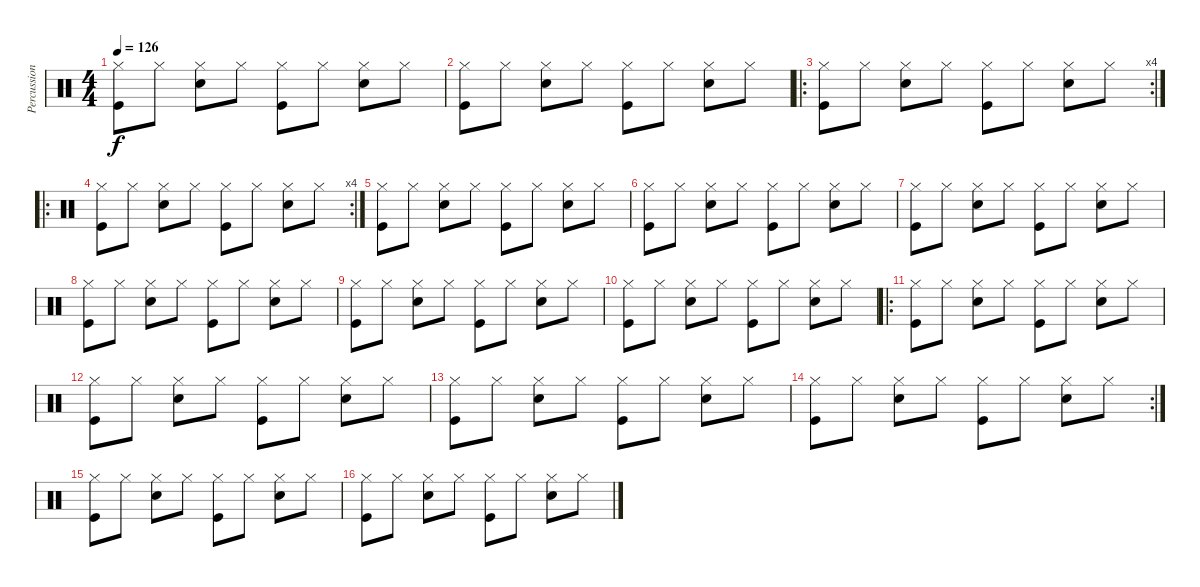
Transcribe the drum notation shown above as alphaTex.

\track ("Percussions" "Percussion") {instrument percussion}
\staff {score}
\articulation defaults
\ts (4 4)
\tempo 126
\clef neutral
\ks c
("Hi-Hat (closed)" "Kick (hit)").8{dy f} "Hi-Hat (closed)".8 ("Hi-Hat (closed)" "Snare (hit) 2").8 "Hi-Hat (closed)".8 ("Hi-Hat (closed)" "Kick (hit)").8 "Hi-Hat (closed)".8 ("Hi-Hat (closed)" "Snare (hit) 2").8 "Hi-Hat (closed)".8 |
("Hi-Hat (closed)" "Kick (hit)").8 "Hi-Hat (closed)".8 ("Hi-Hat (closed)" "Snare (hit) 2").8 "Hi-Hat (closed)".8 ("Hi-Hat (closed)" "Kick (hit)").8 "Hi-Hat (closed)".8 ("Hi-Hat (closed)" "Snare (hit) 2").8 "Hi-Hat (closed)".8 |
\ro
\rc 4
("Hi-Hat (closed)" "Kick (hit)").8 "Hi-Hat (closed)".8 ("Hi-Hat (closed)" "Snare (hit) 2").8 "Hi-Hat (closed)".8 ("Hi-Hat (closed)" "Kick (hit)").8 "Hi-Hat (closed)".8 ("Hi-Hat (closed)" "Snare (hit) 2").8 "Hi-Hat (closed)".8 |
\ro
\rc 4
("Hi-Hat (closed)" "Kick (hit)").8 "Hi-Hat (closed)".8 ("Hi-Hat (closed)" "Snare (hit) 2").8 "Hi-Hat (closed)".8 ("Hi-Hat (closed)" "Kick (hit)").8 "Hi-Hat (closed)".8 ("Hi-Hat (closed)" "Snare (hit) 2").8 "Hi-Hat (closed)".8 |
("Hi-Hat (closed)" "Kick (hit)").8 "Hi-Hat (closed)".8 ("Hi-Hat (closed)" "Snare (hit) 2").8 "Hi-Hat (closed)".8 ("Hi-Hat (closed)" "Kick (hit)").8 "Hi-Hat (closed)".8 ("Hi-Hat (closed)" "Snare (hit) 2").8 "Hi-Hat (closed)".8 |
("Hi-Hat (closed)" "Kick (hit)").8 "Hi-Hat (closed)".8 ("Hi-Hat (closed)" "Snare (hit) 2").8 "Hi-Hat (closed)".8 ("Hi-Hat (closed)" "Kick (hit)").8 "Hi-Hat (closed)".8 ("Hi-Hat (closed)" "Snare (hit) 2").8 "Hi-Hat (closed)".8 |
("Hi-Hat (closed)" "Kick (hit)").8 "Hi-Hat (closed)".8 ("Hi-Hat (closed)" "Snare (hit) 2").8 "Hi-Hat (closed)".8 ("Hi-Hat (closed)" "Kick (hit)").8 "Hi-Hat (closed)".8 ("Hi-Hat (closed)" "Snare (hit) 2").8 "Hi-Hat (closed)".8 |
("Hi-Hat (closed)" "Kick (hit)").8 "Hi-Hat (closed)".8 ("Hi-Hat (closed)" "Snare (hit) 2").8 "Hi-Hat (closed)".8 ("Hi-Hat (closed)" "Kick (hit)").8 "Hi-Hat (closed)".8 ("Hi-Hat (closed)" "Snare (hit) 2").8 "Hi-Hat (closed)".8 |
("Hi-Hat (closed)" "Kick (hit)").8 "Hi-Hat (closed)".8 ("Hi-Hat (closed)" "Snare (hit) 2").8 "Hi-Hat (closed)".8 ("Hi-Hat (closed)" "Kick (hit)").8 "Hi-Hat (closed)".8 ("Hi-Hat (closed)" "Snare (hit) 2").8 "Hi-Hat (closed)".8 |
("Hi-Hat (closed)" "Kick (hit)").8 "Hi-Hat (closed)".8 ("Hi-Hat (closed)" "Snare (hit) 2").8 "Hi-Hat (closed)".8 ("Hi-Hat (closed)" "Kick (hit)").8 "Hi-Hat (closed)".8 ("Hi-Hat (closed)" "Snare (hit) 2").8 "Hi-Hat (closed)".8 |
\ro
("Hi-Hat (closed)" "Kick (hit)").8 "Hi-Hat (closed)".8 ("Hi-Hat (closed)" "Snare (hit) 2").8 "Hi-Hat (closed)".8 ("Hi-Hat (closed)" "Kick (hit)").8 "Hi-Hat (closed)".8 ("Hi-Hat (closed)" "Snare (hit) 2").8 "Hi-Hat (closed)".8 |
("Hi-Hat (closed)" "Kick (hit)").8 "Hi-Hat (closed)".8 ("Hi-Hat (closed)" "Snare (hit) 2").8 "Hi-Hat (closed)".8 ("Hi-Hat (closed)" "Kick (hit)").8 "Hi-Hat (closed)".8 ("Hi-Hat (closed)" "Snare (hit) 2").8 "Hi-Hat (closed)".8 |
("Hi-Hat (closed)" "Kick (hit)").8 "Hi-Hat (closed)".8 ("Hi-Hat (closed)" "Snare (hit) 2").8 "Hi-Hat (closed)".8 ("Hi-Hat (closed)" "Kick (hit)").8 "Hi-Hat (closed)".8 ("Hi-Hat (closed)" "Snare (hit) 2").8 "Hi-Hat (closed)".8 |
\rc 2
("Hi-Hat (closed)" "Kick (hit)").8 "Hi-Hat (closed)".8 ("Hi-Hat (closed)" "Snare (hit) 2").8 "Hi-Hat (closed)".8 ("Hi-Hat (closed)" "Kick (hit)").8 "Hi-Hat (closed)".8 ("Hi-Hat (closed)" "Snare (hit) 2").8 "Hi-Hat (closed)".8 |
("Hi-Hat (closed)" "Kick (hit)").8 "Hi-Hat (closed)".8 ("Hi-Hat (closed)" "Snare (hit) 2").8 "Hi-Hat (closed)".8 ("Hi-Hat (closed)" "Kick (hit)").8 "Hi-Hat (closed)".8 ("Hi-Hat (closed)" "Snare (hit) 2").8 "Hi-Hat (closed)".8 |
("Hi-Hat (closed)" "Kick (hit)").8 "Hi-Hat (closed)".8 ("Hi-Hat (closed)" "Snare (hit) 2").8 "Hi-Hat (closed)".8 ("Hi-Hat (closed)" "Kick (hit)").8 "Hi-Hat (closed)".8 ("Hi-Hat (closed)" "Snare (hit) 2").8 "Hi-Hat (closed)".8
